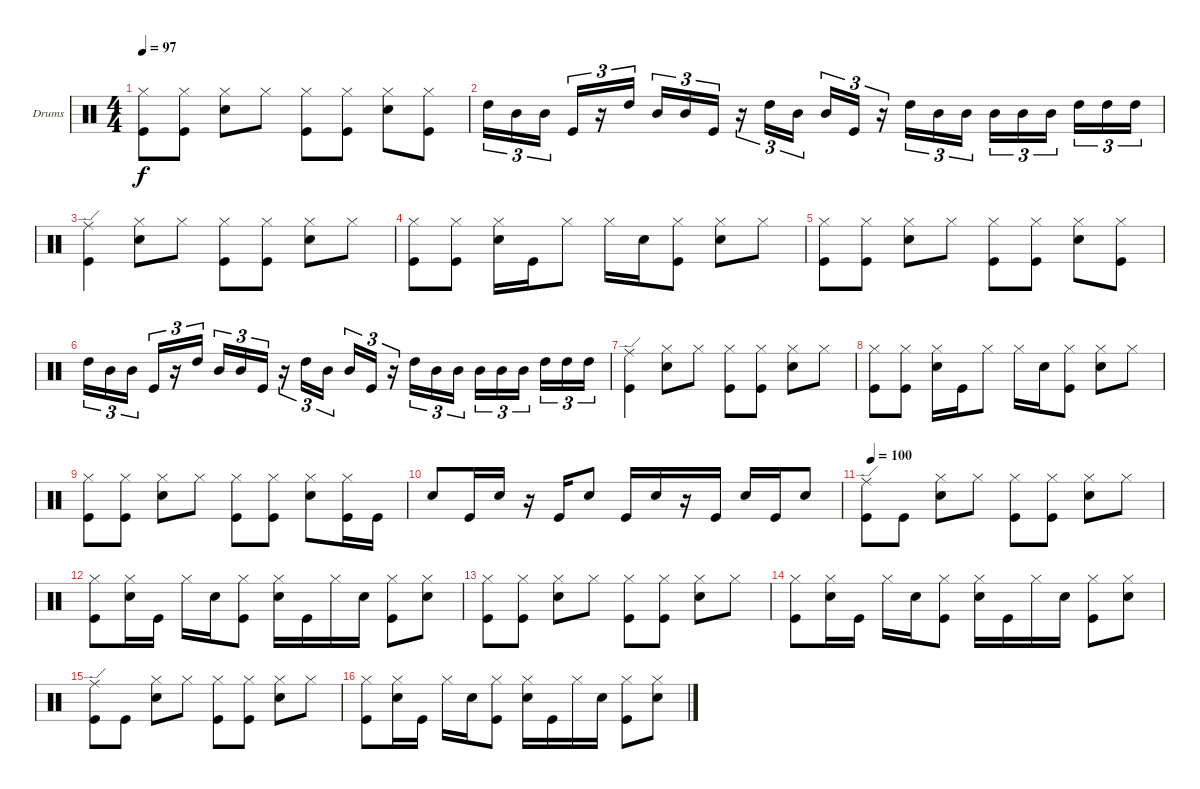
\defaultSystemsLayout 4
\bracketExtendMode groupsimilarinstruments
\firstSystemTrackNameOrientation horizontal
\otherSystemsTrackNameOrientation horizontal
\track ("Drums [Jason]" "Drums") {instrument percussion}
\staff {score}
\articulation defaults
\ts (4 4)
\tempo 97
\clef neutral
\ks c
("Hi-Hat (closed)" "Kick (hit)").8{dy f} ("Hi-Hat (closed)" "Kick (hit)").8 ("Hi-Hat (closed)" "Snare (hit) 2").8 "Hi-Hat (closed)".8 ("Hi-Hat (closed)" "Kick (hit)").8 ("Hi-Hat (closed)" "Kick (hit)").8 ("Hi-Hat (closed)" "Snare (hit) 2").8 ("Hi-Hat (closed)" "Kick (hit)").8 |
"High Tom (hit)".16{tu (3 2)} "Mid Tom (hit)".16{tu (3 2)} "Mid Tom (hit)".16{tu (3 2)} "Kick (hit)".16{tu (3 2)} r.16{tu (3 2)} "High Tom (hit)".16{tu (3 2)} "Mid Tom (hit)".16{tu (3 2)} "Mid Tom (hit)".16{tu (3 2)} "Kick (hit)".16{tu (3 2)} r.16{tu (3 2)} "High Tom (hit)".16{tu (3 2)} "Mid Tom (hit)".16{tu (3 2)} "Mid Tom (hit)".16{tu (3 2)} "Kick (hit)".16{tu (3 2)} r.16{tu (3 2)} "High Tom (hit)".16{tu (3 2)} "Mid Tom (hit)".16{tu (3 2)} "Mid Tom (hit)".16{tu (3 2)} "Mid Tom (hit)".16{tu (3 2)} "Mid Tom (hit)".16{tu (3 2)} "Mid Tom (hit)".16{tu (3 2)} "High Tom (hit)".16{tu (3 2)} "High Tom (hit)".16{tu (3 2)} "High Tom (hit)".16{tu (3 2)} |
("Ride (edge)" "Kick (hit)").4 ("Hi-Hat (closed)" "Snare (hit) 2").8 "Hi-Hat (closed)".8 ("Hi-Hat (closed)" "Kick (hit)").8 ("Hi-Hat (closed)" "Kick (hit)").8 ("Hi-Hat (closed)" "Snare (hit) 2").8 "Hi-Hat (closed)".8 |
("Hi-Hat (closed)" "Kick (hit)").8 ("Hi-Hat (closed)" "Kick (hit)").8 ("Hi-Hat (closed)" "Snare (hit) 2").16 "Kick (hit)".16 "Hi-Hat (closed)".8 "Hi-Hat (closed)".16 "Snare (hit) 2".16 ("Hi-Hat (closed)" "Kick (hit)").8 ("Hi-Hat (closed)" "Snare (hit) 2").8 "Hi-Hat (closed)".8 |
("Hi-Hat (closed)" "Kick (hit)").8 ("Hi-Hat (closed)" "Kick (hit)").8 ("Hi-Hat (closed)" "Snare (hit) 2").8 "Hi-Hat (closed)".8 ("Hi-Hat (closed)" "Kick (hit)").8 ("Hi-Hat (closed)" "Kick (hit)").8 ("Hi-Hat (closed)" "Snare (hit) 2").8 ("Hi-Hat (closed)" "Kick (hit)").8 |
"High Tom (hit)".16{tu (3 2)} "Mid Tom (hit)".16{tu (3 2)} "Mid Tom (hit)".16{tu (3 2)} "Kick (hit)".16{tu (3 2)} r.16{tu (3 2)} "High Tom (hit)".16{tu (3 2)} "Mid Tom (hit)".16{tu (3 2)} "Mid Tom (hit)".16{tu (3 2)} "Kick (hit)".16{tu (3 2)} r.16{tu (3 2)} "High Tom (hit)".16{tu (3 2)} "Mid Tom (hit)".16{tu (3 2)} "Mid Tom (hit)".16{tu (3 2)} "Kick (hit)".16{tu (3 2)} r.16{tu (3 2)} "High Tom (hit)".16{tu (3 2)} "Mid Tom (hit)".16{tu (3 2)} "Mid Tom (hit)".16{tu (3 2)} "Mid Tom (hit)".16{tu (3 2)} "Mid Tom (hit)".16{tu (3 2)} "Mid Tom (hit)".16{tu (3 2)} "High Tom (hit)".16{tu (3 2)} "High Tom (hit)".16{tu (3 2)} "High Tom (hit)".16{tu (3 2)} |
("Ride (edge)" "Kick (hit)").4 ("Hi-Hat (closed)" "Snare (hit) 2").8 "Hi-Hat (closed)".8 ("Hi-Hat (closed)" "Kick (hit)").8 ("Hi-Hat (closed)" "Kick (hit)").8 ("Hi-Hat (closed)" "Snare (hit) 2").8 "Hi-Hat (closed)".8 |
("Hi-Hat (closed)" "Kick (hit)").8 ("Hi-Hat (closed)" "Kick (hit)").8 ("Hi-Hat (closed)" "Snare (hit) 2").16 "Kick (hit)".16 "Hi-Hat (closed)".8 "Hi-Hat (closed)".16 "Snare (hit) 2".16 ("Hi-Hat (closed)" "Kick (hit)").8 ("Hi-Hat (closed)" "Snare (hit) 2").8 "Hi-Hat (closed)".8 |
("Hi-Hat (closed)" "Kick (hit)").8 ("Hi-Hat (closed)" "Kick (hit)").8 ("Hi-Hat (closed)" "Snare (hit) 2").8 "Hi-Hat (closed)".8 ("Hi-Hat (closed)" "Kick (hit)").8 ("Hi-Hat (closed)" "Kick (hit)").8 ("Hi-Hat (closed)" "Snare (hit) 2").8 ("Hi-Hat (closed)" "Kick (hit)").16 "Kick (hit)".16 |
"Snare (hit) 2".8 "Kick (hit)".16 "Snare (hit) 2".16 r.16 "Kick (hit)".16 "Snare (hit) 2".8 "Kick (hit)".16 "Snare (hit) 2".16 r.16 "Kick (hit)".16 "Snare (hit) 2".16 "Kick (hit)".16 "Snare (hit) 2".8 |
\tempo (100 0.01875)
("Ride (edge)" "Kick (hit)").8 "Kick (hit)".8 ("Hi-Hat (closed)" "Snare (hit) 2").8 "Hi-Hat (closed)".8 ("Hi-Hat (closed)" "Kick (hit)").8 ("Hi-Hat (closed)" "Kick (hit)").8 ("Hi-Hat (closed)" "Snare (hit) 2").8 "Hi-Hat (closed)".8 |
("Hi-Hat (closed)" "Kick (hit)").8 ("Hi-Hat (closed)" "Snare (hit) 2").16 "Kick (hit)".16 "Hi-Hat (closed)".16 "Snare (hit) 2".16 ("Hi-Hat (closed)" "Kick (hit)").8 ("Hi-Hat (closed)" "Snare (hit) 2").16 "Kick (hit)".16 "Hi-Hat (closed)".16 "Snare (hit) 2".16 ("Hi-Hat (closed)" "Kick (hit)").8 ("Hi-Hat (closed)" "Snare (hit) 2").8 |
("Hi-Hat (closed)" "Kick (hit)").8 ("Hi-Hat (closed)" "Kick (hit)").8 ("Hi-Hat (closed)" "Snare (hit) 2").8 "Hi-Hat (closed)".8 ("Hi-Hat (closed)" "Kick (hit)").8 ("Hi-Hat (closed)" "Kick (hit)").8 ("Hi-Hat (closed)" "Snare (hit) 2").8 "Hi-Hat (closed)".8 |
("Hi-Hat (closed)" "Kick (hit)").8 ("Hi-Hat (closed)" "Snare (hit) 2").16 "Kick (hit)".16 "Hi-Hat (closed)".16 "Snare (hit) 2".16 ("Hi-Hat (closed)" "Kick (hit)").8 ("Hi-Hat (closed)" "Snare (hit) 2").16 "Kick (hit)".16 "Hi-Hat (closed)".16 "Snare (hit) 2".16 ("Hi-Hat (closed)" "Kick (hit)").8 ("Hi-Hat (closed)" "Snare (hit) 2").8 |
("Ride (edge)" "Kick (hit)").8 "Kick (hit)".8 ("Hi-Hat (closed)" "Snare (hit) 2").8 "Hi-Hat (closed)".8 ("Hi-Hat (closed)" "Kick (hit)").8 ("Hi-Hat (closed)" "Kick (hit)").8 ("Hi-Hat (closed)" "Snare (hit) 2").8 "Hi-Hat (closed)".8 |
("Hi-Hat (closed)" "Kick (hit)").8 ("Hi-Hat (closed)" "Snare (hit) 2").16 "Kick (hit)".16 "Hi-Hat (closed)".16 "Snare (hit) 2".16 ("Hi-Hat (closed)" "Kick (hit)").8 ("Hi-Hat (closed)" "Snare (hit) 2").16 "Kick (hit)".16 "Hi-Hat (closed)".16 "Snare (hit) 2".16 ("Hi-Hat (closed)" "Kick (hit)").8 ("Hi-Hat (closed)" "Snare (hit) 2").8
